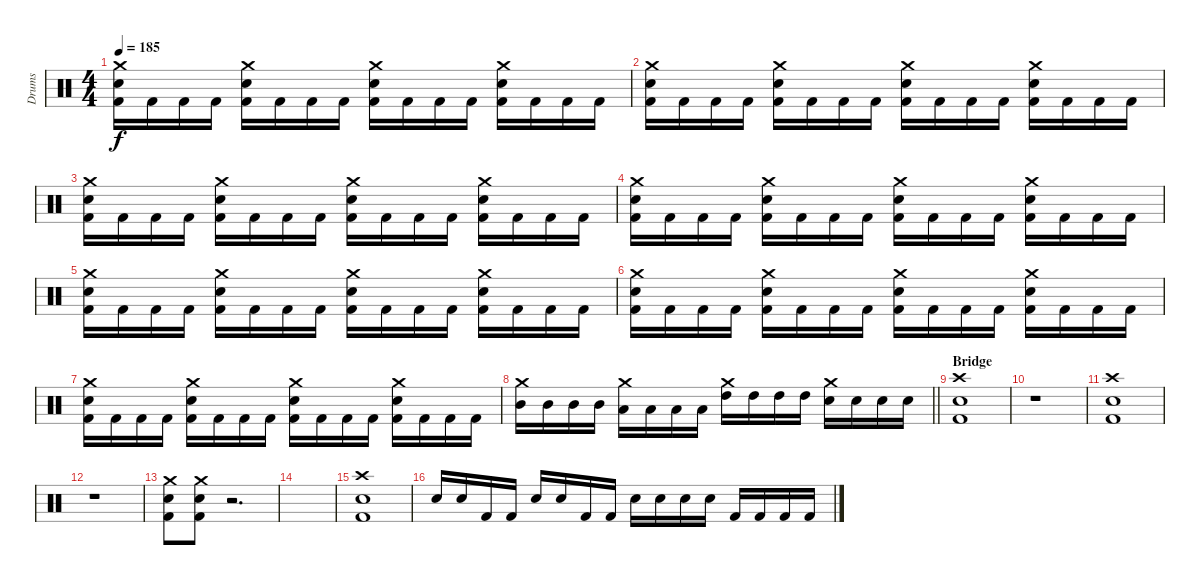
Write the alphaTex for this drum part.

\track ("Drums" "Drums") {instrument percussion}
\staff {score}
\articulation defaults
\ts (4 4)
\tempo 185
\clef neutral
\ks c
("Crash medium (hit)" "Snare (hit) 2" "Kick (hit) 2").16{dy f} "Kick (hit) 2".16 "Kick (hit) 2".16 "Kick (hit) 2".16 ("Crash medium (hit)" "Snare (hit) 2" "Kick (hit) 2").16 "Kick (hit) 2".16 "Kick (hit) 2".16 "Kick (hit) 2".16 ("Crash medium (hit)" "Snare (hit) 2" "Kick (hit) 2").16 "Kick (hit) 2".16 "Kick (hit) 2".16 "Kick (hit) 2".16 ("Crash medium (hit)" "Snare (hit) 2" "Kick (hit) 2").16 "Kick (hit) 2".16 "Kick (hit) 2".16 "Kick (hit) 2".16 |
("Crash medium (hit)" "Snare (hit) 2" "Kick (hit) 2").16 "Kick (hit) 2".16 "Kick (hit) 2".16 "Kick (hit) 2".16 ("Crash medium (hit)" "Snare (hit) 2" "Kick (hit) 2").16 "Kick (hit) 2".16 "Kick (hit) 2".16 "Kick (hit) 2".16 ("Crash medium (hit)" "Snare (hit) 2" "Kick (hit) 2").16 "Kick (hit) 2".16 "Kick (hit) 2".16 "Kick (hit) 2".16 ("Crash medium (hit)" "Snare (hit) 2" "Kick (hit) 2").16 "Kick (hit) 2".16 "Kick (hit) 2".16 "Kick (hit) 2".16 |
("Crash medium (hit)" "Snare (hit) 2" "Kick (hit) 2").16 "Kick (hit) 2".16 "Kick (hit) 2".16 "Kick (hit) 2".16 ("Crash medium (hit)" "Snare (hit) 2" "Kick (hit) 2").16 "Kick (hit) 2".16 "Kick (hit) 2".16 "Kick (hit) 2".16 ("Crash medium (hit)" "Snare (hit) 2" "Kick (hit) 2").16 "Kick (hit) 2".16 "Kick (hit) 2".16 "Kick (hit) 2".16 ("Crash medium (hit)" "Snare (hit) 2" "Kick (hit) 2").16 "Kick (hit) 2".16 "Kick (hit) 2".16 "Kick (hit) 2".16 |
("Crash medium (hit)" "Snare (hit) 2" "Kick (hit) 2").16 "Kick (hit) 2".16 "Kick (hit) 2".16 "Kick (hit) 2".16 ("Crash medium (hit)" "Snare (hit) 2" "Kick (hit) 2").16 "Kick (hit) 2".16 "Kick (hit) 2".16 "Kick (hit) 2".16 ("Crash medium (hit)" "Snare (hit) 2" "Kick (hit) 2").16 "Kick (hit) 2".16 "Kick (hit) 2".16 "Kick (hit) 2".16 ("Crash medium (hit)" "Snare (hit) 2" "Kick (hit) 2").16 "Kick (hit) 2".16 "Kick (hit) 2".16 "Kick (hit) 2".16 |
("Crash medium (hit)" "Snare (hit) 2" "Kick (hit) 2").16 "Kick (hit) 2".16 "Kick (hit) 2".16 "Kick (hit) 2".16 ("Crash medium (hit)" "Snare (hit) 2" "Kick (hit) 2").16 "Kick (hit) 2".16 "Kick (hit) 2".16 "Kick (hit) 2".16 ("Crash medium (hit)" "Snare (hit) 2" "Kick (hit) 2").16 "Kick (hit) 2".16 "Kick (hit) 2".16 "Kick (hit) 2".16 ("Crash medium (hit)" "Snare (hit) 2" "Kick (hit) 2").16 "Kick (hit) 2".16 "Kick (hit) 2".16 "Kick (hit) 2".16 |
("Crash medium (hit)" "Snare (hit) 2" "Kick (hit) 2").16 "Kick (hit) 2".16 "Kick (hit) 2".16 "Kick (hit) 2".16 ("Crash medium (hit)" "Snare (hit) 2" "Kick (hit) 2").16 "Kick (hit) 2".16 "Kick (hit) 2".16 "Kick (hit) 2".16 ("Crash medium (hit)" "Snare (hit) 2" "Kick (hit) 2").16 "Kick (hit) 2".16 "Kick (hit) 2".16 "Kick (hit) 2".16 ("Crash medium (hit)" "Snare (hit) 2" "Kick (hit) 2").16 "Kick (hit) 2".16 "Kick (hit) 2".16 "Kick (hit) 2".16 |
("Crash medium (hit)" "Snare (hit) 2" "Kick (hit) 2").16 "Kick (hit) 2".16 "Kick (hit) 2".16 "Kick (hit) 2".16 ("Crash medium (hit)" "Snare (hit) 2" "Kick (hit) 2").16 "Kick (hit) 2".16 "Kick (hit) 2".16 "Kick (hit) 2".16 ("Crash medium (hit)" "Snare (hit) 2" "Kick (hit) 2").16 "Kick (hit) 2".16 "Kick (hit) 2".16 "Kick (hit) 2".16 ("Crash medium (hit)" "Snare (hit) 2" "Kick (hit) 2").16 "Kick (hit) 2".16 "Kick (hit) 2".16 "Kick (hit) 2".16 |
\barLineRight lightlight
("Crash medium (hit)" "Mid Tom (hit)").16 "Mid Tom (hit)".16 "Mid Tom (hit)".16 "Mid Tom (hit)".16 ("Crash medium (hit)" "Low Tom (hit)").16 "Low Tom (hit)".16 "Low Tom (hit)".16 "Low Tom (hit)".16 ("Crash medium (hit)" "High Tom (hit)").16 "High Tom (hit)".16 "High Tom (hit)".16 "High Tom (hit)".16 ("Crash medium (hit)" "Snare (hit) 2").16 "Snare (hit) 2".16 "Snare (hit) 2".16 "Snare (hit) 2".16 |
\section ("" "Bridge")
("Crash high (hit)" "Snare (hit) 2" "Kick (hit) 2").1 |
r.1 |
("Crash high (hit)" "Snare (hit) 2" "Kick (hit) 2").1 |
r.1 |
("Crash medium (hit)" "Snare (hit) 2" "Kick (hit) 2").8 ("Crash medium (hit)" "Snare (hit) 2" "Kick (hit) 2").8 r.2{d} |
|
("Crash high (hit)" "Snare (hit) 2" "Kick (hit) 2").1 |
"Snare (hit) 2".16 "Snare (hit) 2".16 "Kick (hit) 2".16 "Kick (hit) 2".16 "Snare (hit) 2".16 "Snare (hit) 2".16 "Kick (hit) 2".16 "Kick (hit) 2".16 "Snare (hit) 2".16 "Snare (hit) 2".16 "Snare (hit) 2".16 "Snare (hit) 2".16 "Kick (hit) 2".16 "Kick (hit) 2".16 "Kick (hit) 2".16 "Kick (hit) 2".16
